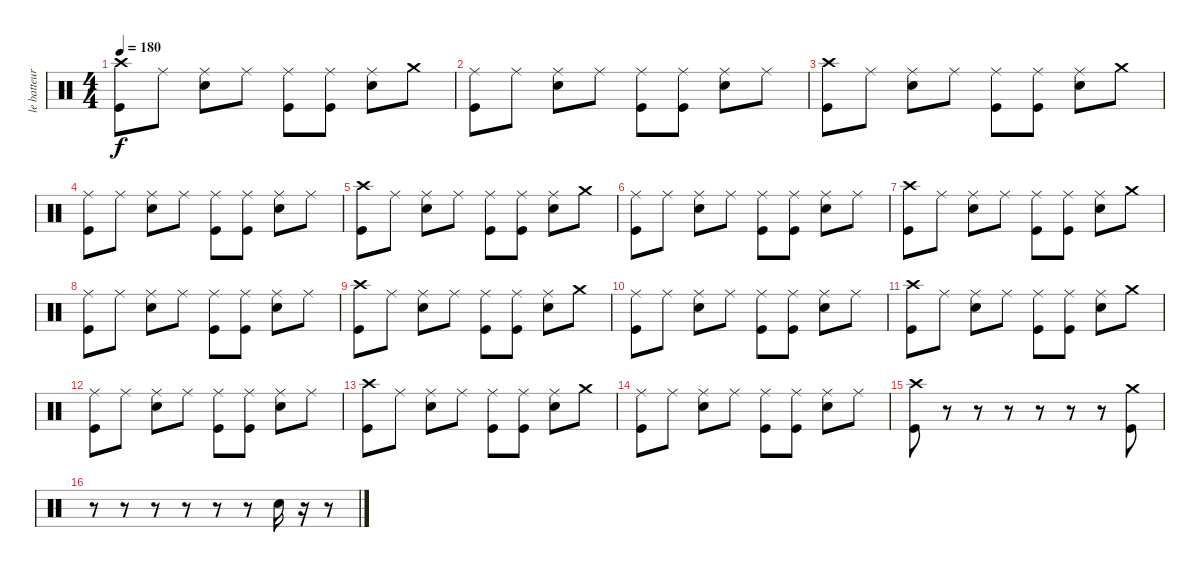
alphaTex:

\track ("le batteur" "le batteur") {instrument percussion}
\staff {score}
\articulation defaults
\ts (4 4)
\tempo 180
\clef neutral
\ks c
("Crash high (hit)" "Kick (hit)").8{dy f} "Ride (middle)".8 ("Ride (middle)" "Snare (hit) 2").8 "Ride (middle)".8 ("Ride (middle)" "Kick (hit)").8 ("Ride (middle)" "Kick (hit)").8 ("Ride (middle)" "Snare (hit) 2").8 "Crash medium (hit)".8 |
("Ride (middle)" "Kick (hit)").8 "Ride (middle)".8 ("Ride (middle)" "Snare (hit) 2").8 "Ride (middle)".8 ("Ride (middle)" "Kick (hit)").8 ("Ride (middle)" "Kick (hit)").8 ("Ride (middle)" "Snare (hit) 2").8 "Ride (middle)".8 |
("Crash high (hit)" "Kick (hit)").8 "Ride (middle)".8 ("Ride (middle)" "Snare (hit) 2").8 "Ride (middle)".8 ("Ride (middle)" "Kick (hit)").8 ("Ride (middle)" "Kick (hit)").8 ("Ride (middle)" "Snare (hit) 2").8 "Crash medium (hit)".8 |
("Ride (middle)" "Kick (hit)").8 "Ride (middle)".8 ("Ride (middle)" "Snare (hit) 2").8 "Ride (middle)".8 ("Ride (middle)" "Kick (hit)").8 ("Ride (middle)" "Kick (hit)").8 ("Ride (middle)" "Snare (hit) 2").8 "Ride (middle)".8 |
("Crash high (hit)" "Kick (hit)").8 "Ride (middle)".8 ("Ride (middle)" "Snare (hit) 2").8 "Ride (middle)".8 ("Ride (middle)" "Kick (hit)").8 ("Ride (middle)" "Kick (hit)").8 ("Ride (middle)" "Snare (hit) 2").8 "Crash medium (hit)".8 |
("Ride (middle)" "Kick (hit)").8 "Ride (middle)".8 ("Ride (middle)" "Snare (hit) 2").8 "Ride (middle)".8 ("Ride (middle)" "Kick (hit)").8 ("Ride (middle)" "Kick (hit)").8 ("Ride (middle)" "Snare (hit) 2").8 "Ride (middle)".8 |
("Crash high (hit)" "Kick (hit)").8 "Ride (middle)".8 ("Ride (middle)" "Snare (hit) 2").8 "Ride (middle)".8 ("Ride (middle)" "Kick (hit)").8 ("Ride (middle)" "Kick (hit)").8 ("Ride (middle)" "Snare (hit) 2").8 "Crash medium (hit)".8 |
("Ride (middle)" "Kick (hit)").8 "Ride (middle)".8 ("Ride (middle)" "Snare (hit) 2").8 "Ride (middle)".8 ("Ride (middle)" "Kick (hit)").8 ("Ride (middle)" "Kick (hit)").8 ("Ride (middle)" "Snare (hit) 2").8 "Ride (middle)".8 |
("Crash high (hit)" "Kick (hit)").8 "Ride (middle)".8 ("Ride (middle)" "Snare (hit) 2").8 "Ride (middle)".8 ("Ride (middle)" "Kick (hit)").8 ("Ride (middle)" "Kick (hit)").8 ("Ride (middle)" "Snare (hit) 2").8 "Crash medium (hit)".8 |
("Ride (middle)" "Kick (hit)").8 "Ride (middle)".8 ("Ride (middle)" "Snare (hit) 2").8 "Ride (middle)".8 ("Ride (middle)" "Kick (hit)").8 ("Ride (middle)" "Kick (hit)").8 ("Ride (middle)" "Snare (hit) 2").8 "Ride (middle)".8 |
("Crash high (hit)" "Kick (hit)").8 "Ride (middle)".8 ("Ride (middle)" "Snare (hit) 2").8 "Ride (middle)".8 ("Ride (middle)" "Kick (hit)").8 ("Ride (middle)" "Kick (hit)").8 ("Ride (middle)" "Snare (hit) 2").8 "Crash medium (hit)".8 |
("Ride (middle)" "Kick (hit)").8 "Ride (middle)".8 ("Ride (middle)" "Snare (hit) 2").8 "Ride (middle)".8 ("Ride (middle)" "Kick (hit)").8 ("Ride (middle)" "Kick (hit)").8 ("Ride (middle)" "Snare (hit) 2").8 "Ride (middle)".8 |
("Crash high (hit)" "Kick (hit)").8 "Ride (middle)".8 ("Ride (middle)" "Snare (hit) 2").8 "Ride (middle)".8 ("Ride (middle)" "Kick (hit)").8 ("Ride (middle)" "Kick (hit)").8 ("Ride (middle)" "Snare (hit) 2").8 "Crash medium (hit)".8 |
("Ride (middle)" "Kick (hit)").8 "Ride (middle)".8 ("Ride (middle)" "Snare (hit) 2").8 "Ride (middle)".8 ("Ride (middle)" "Kick (hit)").8 ("Ride (middle)" "Kick (hit)").8 ("Ride (middle)" "Snare (hit) 2").8 "Ride (middle)".8 |
("Crash high (hit)" "Kick (hit)").8 r.8 r.8 r.8 r.8 r.8 r.8 ("Crash medium (hit)" "Kick (hit)").8 |
r.8 r.8 r.8 r.8 r.8 r.8 "Snare (hit) 2".16 r.16 r.8
